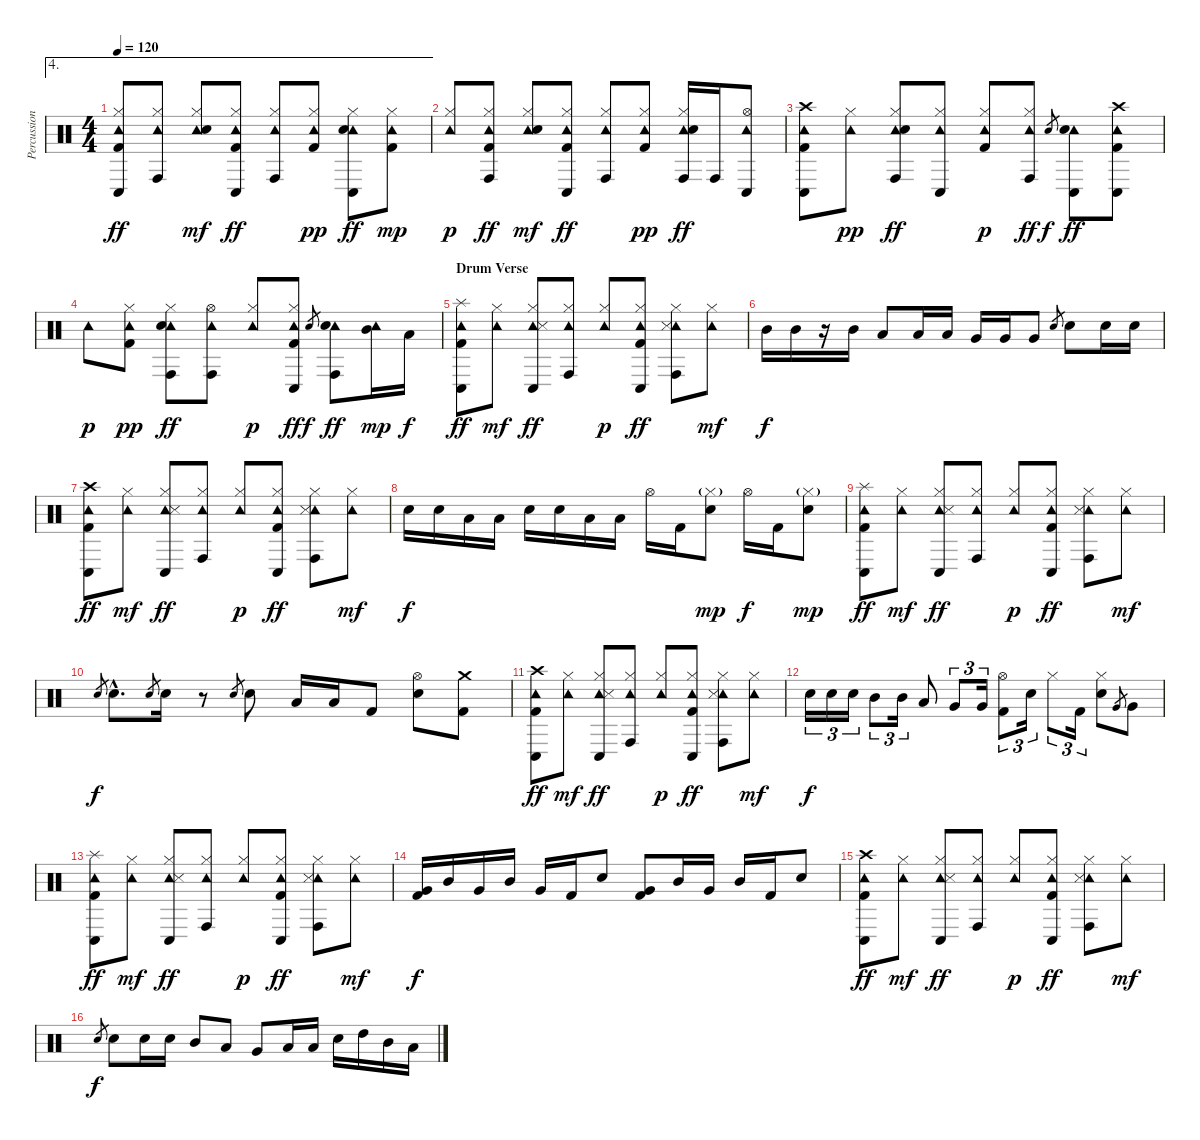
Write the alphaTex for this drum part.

\track ("Percussion" "Percussion") {instrument percussion}
\staff {score}
\articulation defaults
\ae 4
\ts (4 4)
\tempo 120
\clef neutral
\ks c
("Kick (hit) 2" "Tambourine (hit)" "Hi-Hat (closed)" "Conga low (hit)").8{dy ff} ("Tambourine (hit)" "Hi-Hat (closed)" "Conga high (hit)").8 ("Tambourine (hit)" "Snare (hit) 2" "Hi-Hat (closed)").8{dy mf} ("Kick (hit) 2" "Tambourine (hit)" "Hi-Hat (closed)" "Conga low (hit)").8{dy ff} ("Tambourine (hit)" "Hi-Hat (closed)" "Conga high (hit)").8 ("Kick (hit) 2" "Tambourine (hit)" "Hi-Hat (closed)").8{dy pp} ("Tambourine (hit)" "Snare (hit) 2" "Hi-Hat (closed)" "Conga low (hit)").8{dy ff} ("Kick (hit) 2" "Tambourine (hit)" "Hi-Hat (closed)").8{dy mp} |
("Tambourine (hit)" "Hi-Hat (closed)").8{dy p} ("Kick (hit) 2" "Tambourine (hit)" "Hi-Hat (closed)" "Conga high (hit)").8{dy ff} ("Tambourine (hit)" "Snare (hit) 2" "Hi-Hat (closed)").8{dy mf} ("Kick (hit) 2" "Tambourine (hit)" "Hi-Hat (closed)" "Conga low (hit)").8{dy ff} ("Tambourine (hit)" "Hi-Hat (closed)" "Conga high (hit)").8 ("Kick (hit) 2" "Tambourine (hit)" "Hi-Hat (closed)").8{dy pp} ("Tambourine (hit)" "Snare (hit) 2" "Hi-Hat (closed)" "Conga high (hit)").16{dy ff} "Conga high (hit)".16 ("Tambourine (hit)" "Hi-Hat (open)" "Conga low (hit)").8 |
("Kick (hit) 2" "Crash high (hit)" "Tambourine (hit)" "Conga low (hit)").8 ("Tambourine (hit)" "Hi-Hat (closed)").8{dy pp} ("Tambourine (hit)" "Snare (hit) 2" "Hi-Hat (closed)" "Conga high (hit)").8{dy ff} ("Tambourine (hit)" "Hi-Hat (closed)" "Conga low (hit)").8 ("Kick (hit) 2" "Tambourine (hit)" "Hi-Hat (closed)").8{dy p} ("Tambourine (hit)" "Hi-Hat (closed)" "Conga high (hit)").8{dy ff} "Snare (hit) 2".8{gr dy f} ("Tambourine (hit)" "Snare (hit) 2" "Conga low (hit)").8{dy ff} ("Kick (hit) 2" "Crash high (hit)" "Tambourine (hit)" "Conga low (hit)").8 |
"Tambourine (hit)".8{dy p} ("Kick (hit) 2" "Tambourine (hit)" "Hi-Hat (closed)").8{dy pp} ("Tambourine (hit)" "Snare (hit) 2" "Hi-Hat (closed)" "Conga high (hit)").8{dy ff} ("Tambourine (hit)" "Hi-Hat (open)" "Conga high (hit)").8 ("Tambourine (hit)" "Hi-Hat (closed)").8{dy p} ("Kick (hit) 2" "Tambourine (hit)" "Hi-Hat (closed)" "Conga low (hit)").8{dy ff} "Snare (hit) 2".8{gr dy f} ("Tambourine (hit)" "Snare (hit) 2" "Conga high (hit)").8{dy ff} ("Tambourine (hit)" "Mid Tom (hit)").16{dy mp} "Low Tom (hit)".16{dy f} |
\section ("" "Drum Verse")
("Kick (hit) 2" "Splash (hit)" "Tambourine (hit)" "Conga low (hit)").8{dy ff} ("Tambourine (hit)" "Hi-Hat (closed)").8{dy mf} ("Tambourine (hit)" "Snare (side stick) 3" "Hi-Hat (closed)" "Conga low (hit)").8{dy ff} ("Tambourine (hit)" "Hi-Hat (closed)" "Conga high (hit)").8 ("Tambourine (hit)" "Hi-Hat (closed)").8{dy p} ("Kick (hit) 2" "Tambourine (hit)" "Hi-Hat (closed)" "Conga low (hit)").8{dy ff} ("Tambourine (hit)" "Snare (side stick) 3" "Hi-Hat (closed)" "Conga high (hit)").8 ("Tambourine (hit)" "Hi-Hat (closed)").8{dy mf} |
"Mid Tom (hit)".16{dy f} "Mid Tom (hit)".16 r.16 "Mid Tom (hit)".16 "Low Tom (hit)".8 "Low Tom (hit)".16 "Low Tom (hit)".16 "Very Low Tom (hit)".16 "Very Low Tom (hit)".16 "Very Low Tom (hit)".8 "Snare (hit) 2".8{gr} "Snare (hit) 2".8 "Snare (hit) 2".16 "Snare (hit) 2".16 |
("Kick (hit) 2" "Crash high (hit)" "Tambourine (hit)" "Conga low (hit)").8{dy ff} ("Tambourine (hit)" "Hi-Hat (closed)").8{dy mf} ("Tambourine (hit)" "Snare (side stick) 3" "Hi-Hat (closed)" "Conga low (hit)").8{dy ff} ("Tambourine (hit)" "Hi-Hat (closed)" "Conga high (hit)").8 ("Tambourine (hit)" "Hi-Hat (closed)").8{dy p} ("Kick (hit) 2" "Tambourine (hit)" "Hi-Hat (closed)" "Conga low (hit)").8{dy ff} ("Tambourine (hit)" "Snare (side stick) 3" "Hi-Hat (closed)" "Conga high (hit)").8 ("Tambourine (hit)" "Hi-Hat (closed)").8{dy mf} |
"Snare (hit) 2".16{dy f} "Snare (hit) 2".16 "Low Tom (hit)".16 "Low Tom (hit)".16 "Snare (hit) 2".16 "Snare (hit) 2".16 "Low Tom (hit)".16 "Low Tom (hit)".16 "Hi-Hat (open)".16 "Kick (hit) 2".16 ("Snare (hit) 2" "Hi-Hat (closed)"{g}).8{dy mp} "Hi-Hat (open)".16{dy f} "Kick (hit) 2".16 ("Snare (hit) 2" "Hi-Hat (closed)"{g}).8{dy mp} |
("Kick (hit) 2" "Splash (hit)" "Tambourine (hit)" "Conga low (hit)").8{dy ff} ("Tambourine (hit)" "Hi-Hat (closed)").8{dy mf} ("Tambourine (hit)" "Snare (side stick) 3" "Hi-Hat (closed)" "Conga low (hit)").8{dy ff} ("Tambourine (hit)" "Hi-Hat (closed)" "Conga high (hit)").8 ("Tambourine (hit)" "Hi-Hat (closed)").8{dy p} ("Kick (hit) 2" "Tambourine (hit)" "Hi-Hat (closed)" "Conga low (hit)").8{dy ff} ("Tambourine (hit)" "Snare (side stick) 3" "Hi-Hat (closed)" "Conga high (hit)").8 ("Tambourine (hit)" "Hi-Hat (closed)").8{dy mf} |
"Snare (hit) 2".8{gr dy f} "Snare (hit) 2"{hac}.8{d} "Snare (hit) 2".8{gr} "Snare (hit) 2".16 r.8 "Snare (hit) 2".8{gr} "Snare (hit) 2".8 "Low Tom (hit)".16 "Low Tom (hit)".16 "Kick (hit) 2".8 ("Snare (hit) 2" "Hi-Hat (open)").8 ("Kick (hit) 2" "Crash medium (hit)").8 |
("Kick (hit) 2" "Crash high (hit)" "Tambourine (hit)" "Conga low (hit)").8{dy ff} ("Tambourine (hit)" "Hi-Hat (closed)").8{dy mf} ("Tambourine (hit)" "Snare (side stick) 3" "Hi-Hat (closed)" "Conga low (hit)").8{dy ff} ("Tambourine (hit)" "Hi-Hat (closed)" "Conga high (hit)").8 ("Tambourine (hit)" "Hi-Hat (closed)").8{dy p} ("Kick (hit) 2" "Tambourine (hit)" "Hi-Hat (closed)" "Conga low (hit)").8{dy ff} ("Tambourine (hit)" "Snare (side stick) 3" "Hi-Hat (closed)" "Conga high (hit)").8 ("Tambourine (hit)" "Hi-Hat (closed)").8{dy mf} |
"Snare (hit) 2".16{tu (3 2) dy f} "Snare (hit) 2".16{tu (3 2)} "Snare (hit) 2".16{tu (3 2)} "Mid Tom (hit)".8{tu (3 2)} "Mid Tom (hit)".16{tu (3 2)} "Low Tom (hit)".8 "Very Low Tom (hit)".8{tu (3 2)} "Very Low Tom (hit)".16{tu (3 2)} ("Kick (hit) 2" "Hi-Hat (open)").8{tu (3 2)} "Snare (hit) 2".16{tu (3 2)} "Hi-Hat (closed)".8{tu (3 2)} "Kick (hit) 2".16{tu (3 2)} ("Snare (hit) 2" "Hi-Hat (closed)").8 "Very Low Tom (hit)".8{gr} "Very Low Tom (hit)".8 |
("Kick (hit) 2" "Splash (hit)" "Tambourine (hit)" "Conga low (hit)").8{dy ff} ("Tambourine (hit)" "Hi-Hat (closed)").8{dy mf} ("Tambourine (hit)" "Snare (side stick) 3" "Hi-Hat (closed)" "Conga low (hit)").8{dy ff} ("Tambourine (hit)" "Hi-Hat (closed)" "Conga high (hit)").8 ("Tambourine (hit)" "Hi-Hat (closed)").8{dy p} ("Kick (hit) 2" "Tambourine (hit)" "Hi-Hat (closed)" "Conga low (hit)").8{dy ff} ("Tambourine (hit)" "Snare (side stick) 3" "Hi-Hat (closed)" "Conga high (hit)").8 ("Tambourine (hit)" "Hi-Hat (closed)").8{dy mf} |
("Kick (hit) 2" "Very Low Tom (hit)").16{dy f} "Mid Tom (hit)".16 "Very Low Tom (hit)".16 "Mid Tom (hit)".16 "Very Low Tom (hit)".16 "Kick (hit) 2".16 "Snare (hit) 2".8 ("Kick (hit) 2" "Very Low Tom (hit)").8 "Mid Tom (hit)".16 "Very Low Tom (hit)".16 "Mid Tom (hit)".16 "Kick (hit) 2".16 "Snare (hit) 2".8 |
("Kick (hit) 2" "Crash high (hit)" "Tambourine (hit)" "Conga low (hit)").8{dy ff} ("Tambourine (hit)" "Hi-Hat (closed)").8{dy mf} ("Tambourine (hit)" "Snare (side stick) 3" "Hi-Hat (closed)" "Conga low (hit)").8{dy ff} ("Tambourine (hit)" "Hi-Hat (closed)" "Conga high (hit)").8 ("Tambourine (hit)" "Hi-Hat (closed)").8{dy p} ("Kick (hit) 2" "Tambourine (hit)" "Hi-Hat (closed)" "Conga low (hit)").8{dy ff} ("Tambourine (hit)" "Snare (side stick) 3" "Hi-Hat (closed)" "Conga high (hit)").8 ("Tambourine (hit)" "Hi-Hat (closed)").8{dy mf} |
"Snare (hit) 2".8{gr dy f} "Snare (hit) 2".8 "Snare (hit) 2".16 "Snare (hit) 2".16 "Mid Tom (hit)".8 "Low Tom (hit)".8 "Very Low Tom (hit)".8 "Low Floor Tom (hit)".16 "Low Floor Tom (hit)".16 "Snare (hit) 2".16 "High Tom (hit)".16 "Mid Tom (hit)".16 "Low Tom (hit)".16
